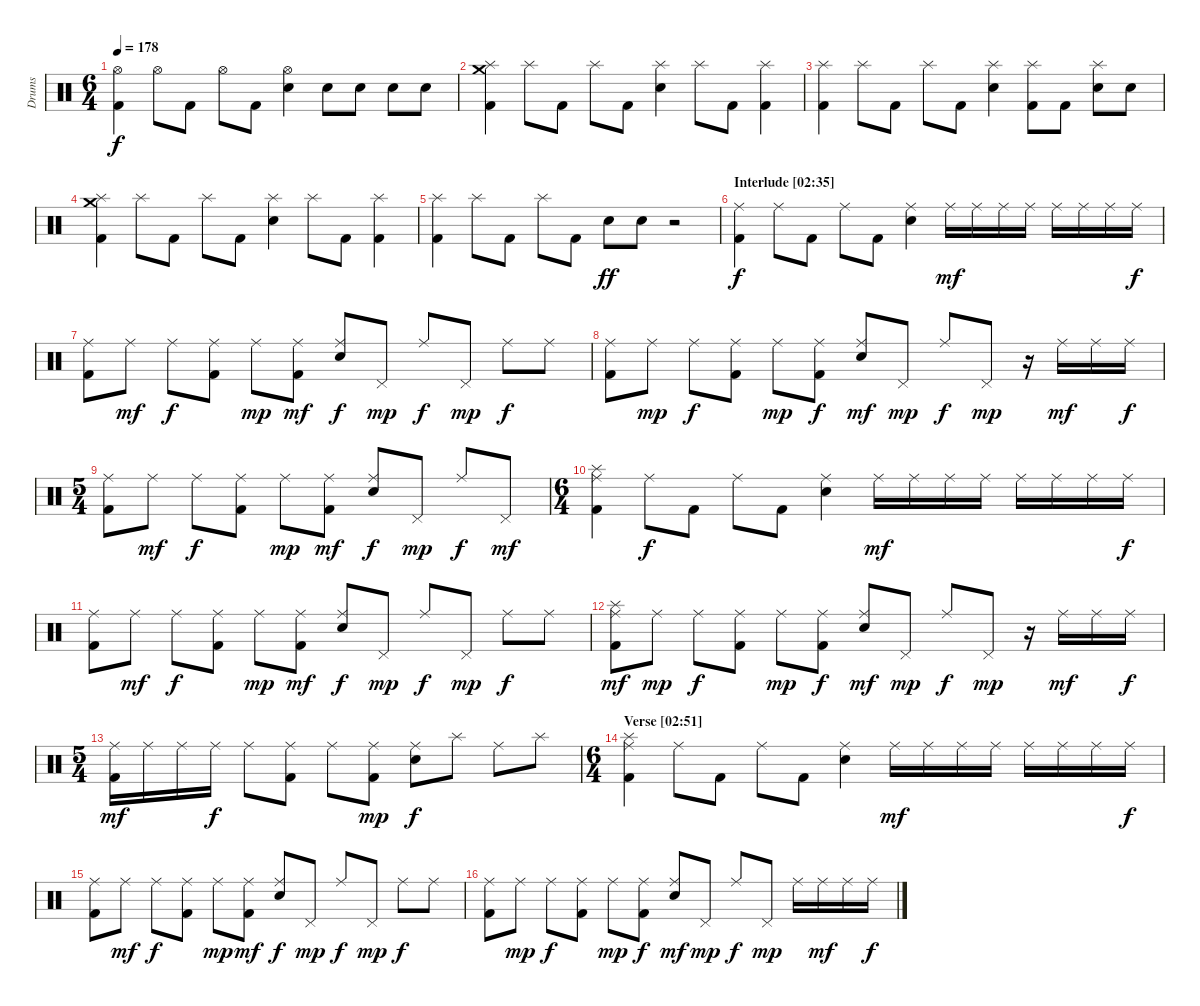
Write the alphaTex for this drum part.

\track ("Drums" "Drums") {instrument percussion}
\staff {score}
\articulation defaults
\ts (6 4)
\tempo 178
\clef neutral
\ks c
("Hi-Hat (open)" "Kick (hit) 2").4{dy f} "Hi-Hat (open)".8 "Kick (hit) 2".8 "Hi-Hat (open)".8 "Kick (hit) 2".8 ("Hi-Hat (open)" "Electric Snare (hit)").4 "Electric Snare (hit)".8 "Electric Snare (hit)".8 "Electric Snare (hit)".8 "Electric Snare (hit)".8 |
\section ("" "")
("Splash (hit)" "Crash medium (hit)" "Kick (hit) 2").4 "Splash (hit)".8 "Kick (hit) 2".8 "Splash (hit)".8 "Kick (hit) 2".8 ("Splash (hit)" "Electric Snare (hit)").4 "Splash (hit)".8 "Kick (hit) 2".8 ("Splash (hit)" "Kick (hit) 2").4 |
("Splash (hit)" "Kick (hit) 2").4 "Splash (hit)".8 "Kick (hit) 2".8 "Splash (hit)".8 "Kick (hit) 2".8 ("Splash (hit)" "Electric Snare (hit)").4 ("Splash (hit)" "Kick (hit) 2").8 "Kick (hit) 2".8 ("Splash (hit)" "Electric Snare (hit)").8 "Electric Snare (hit)".8 |
("Splash (hit)" "Crash medium (hit)" "Kick (hit) 2").4 "Splash (hit)".8 "Kick (hit) 2".8 "Splash (hit)".8 "Kick (hit) 2".8 ("Splash (hit)" "Electric Snare (hit)").4 "Splash (hit)".8 "Kick (hit) 2".8 ("Splash (hit)" "Kick (hit) 2").4 |
("Splash (hit)" "Kick (hit) 2").4 "Splash (hit)".8 "Kick (hit) 2".8 "Splash (hit)".8 "Kick (hit) 2".8 "Electric Snare (hit)".8{dy ff} "Electric Snare (hit)".8 r.2 |
\section ("" "Interlude [02:35]")
("Ride (middle)" "Kick (hit) 2").4{dy f} "Ride (middle)".8 "Kick (hit) 2".8 "Ride (middle)".8 "Kick (hit) 2".8 ("Ride (middle)" "Electric Snare (hit)").4 "Ride (middle)".16{dy mf} "Ride (middle)".16 "Ride (middle)".16 "Ride (middle)".16 "Ride (middle)".16 "Ride (middle)".16 "Ride (middle)".16 "Ride (middle)".16{dy f} |
("Ride (middle)" "Kick (hit) 2").8 "Ride (middle)".8{dy mf} "Ride (middle)".8{dy f} ("Ride (middle)" "Kick (hit) 2").8 "Ride (middle)".8{dy mp} ("Ride (middle)" "Kick (hit) 2").8{dy mf} ("Ride (middle)" "Electric Snare (hit)").8{dy f} "Pedal Hi-Hat (hit)".8{dy mp} "Ride (middle)".8{dy f} "Pedal Hi-Hat (hit)".8{dy mp} "Ride (middle)".8{dy f} "Ride (middle)".8 |
("Ride (middle)" "Kick (hit) 2").8 "Ride (middle)".8{dy mp} "Ride (middle)".8{dy f} ("Ride (middle)" "Kick (hit) 2").8 "Ride (middle)".8{dy mp} ("Ride (middle)" "Kick (hit) 2").8{dy f} ("Ride (middle)" "Electric Snare (hit)").8{dy mf} "Pedal Hi-Hat (hit)".8{dy mp} "Ride (middle)".8{dy f} "Pedal Hi-Hat (hit)".8{dy mp} r.16 "Ride (middle)".16{dy mf} "Ride (middle)".16 "Ride (middle)".16{dy f} |
\ts (5 4)
("Ride (middle)" "Kick (hit) 2").8 "Ride (middle)".8{dy mf} "Ride (middle)".8{dy f} ("Ride (middle)" "Kick (hit) 2").8 "Ride (middle)".8{dy mp} ("Ride (middle)" "Kick (hit) 2").8{dy mf} ("Ride (middle)" "Electric Snare (hit)").8{dy f} "Pedal Hi-Hat (hit)".8{dy mp} "Ride (middle)".8{dy f} "Pedal Hi-Hat (hit)".8{dy mf} |
\ts (6 4)
("Ride (middle)" "Splash (hit)" "Kick (hit) 2").4 "Ride (middle)".8{dy f} "Kick (hit) 2".8 "Ride (middle)".8 "Kick (hit) 2".8 ("Ride (middle)" "Electric Snare (hit)").4 "Ride (middle)".16{dy mf} "Ride (middle)".16 "Ride (middle)".16 "Ride (middle)".16 "Ride (middle)".16 "Ride (middle)".16 "Ride (middle)".16 "Ride (middle)".16{dy f} |
("Ride (middle)" "Kick (hit) 2").8 "Ride (middle)".8{dy mf} "Ride (middle)".8{dy f} ("Ride (middle)" "Kick (hit) 2").8 "Ride (middle)".8{dy mp} ("Ride (middle)" "Kick (hit) 2").8{dy mf} ("Ride (middle)" "Electric Snare (hit)").8{dy f} "Pedal Hi-Hat (hit)".8{dy mp} "Ride (middle)".8{dy f} "Pedal Hi-Hat (hit)".8{dy mp} "Ride (middle)".8{dy f} "Ride (middle)".8 |
("Ride (middle)" "Splash (hit)" "Kick (hit) 2").8{dy mf} "Ride (middle)".8{dy mp} "Ride (middle)".8{dy f} ("Ride (middle)" "Kick (hit) 2").8 "Ride (middle)".8{dy mp} ("Ride (middle)" "Kick (hit) 2").8{dy f} ("Ride (middle)" "Electric Snare (hit)").8{dy mf} "Pedal Hi-Hat (hit)".8{dy mp} "Ride (middle)".8{dy f} "Pedal Hi-Hat (hit)".8{dy mp} r.16 "Ride (middle)".16{dy mf} "Ride (middle)".16 "Ride (middle)".16{dy f} |
\ts (5 4)
("Ride (middle)" "Kick (hit) 2").16{dy mf} "Ride (middle)".16 "Ride (middle)".16 "Ride (middle)".16{dy f} "Ride (middle)".8 ("Ride (middle)" "Kick (hit) 2").8 "Ride (middle)".8 ("Ride (middle)" "Kick (hit) 2").8{dy mp} ("Ride (middle)" "Electric Snare (hit)").8{dy f} "Splash (hit)".8 "Ride (middle)".8 "Splash (hit)".8 |
\ts (6 4)
\section ("" "Verse [02:51]")
("Ride (middle)" "Splash (hit)" "Kick (hit) 2").4 "Ride (middle)".8 "Kick (hit) 2".8 "Ride (middle)".8 "Kick (hit) 2".8 ("Ride (middle)" "Electric Snare (hit)").4 "Ride (middle)".16{dy mf} "Ride (middle)".16 "Ride (middle)".16 "Ride (middle)".16 "Ride (middle)".16 "Ride (middle)".16 "Ride (middle)".16 "Ride (middle)".16{dy f} |
("Ride (middle)" "Kick (hit) 2").8 "Ride (middle)".8{dy mf} "Ride (middle)".8{dy f} ("Ride (middle)" "Kick (hit) 2").8 "Ride (middle)".8{dy mp} ("Ride (middle)" "Kick (hit) 2").8{dy mf} ("Ride (middle)" "Electric Snare (hit)").8{dy f} "Pedal Hi-Hat (hit)".8{dy mp} "Ride (middle)".8{dy f} "Pedal Hi-Hat (hit)".8{dy mp} "Ride (middle)".8{dy f} "Ride (middle)".8 |
("Ride (middle)" "Kick (hit) 2").8 "Ride (middle)".8{dy mp} "Ride (middle)".8{dy f} ("Ride (middle)" "Kick (hit) 2").8 "Ride (middle)".8{dy mp} ("Ride (middle)" "Kick (hit) 2").8{dy f} ("Ride (middle)" "Electric Snare (hit)").8{dy mf} "Pedal Hi-Hat (hit)".8{dy mp} "Ride (middle)".8{dy f} "Pedal Hi-Hat (hit)".8{dy mp} "Ride (middle)".16 "Ride (middle)".16{dy mf} "Ride (middle)".16 "Ride (middle)".16{dy f}
